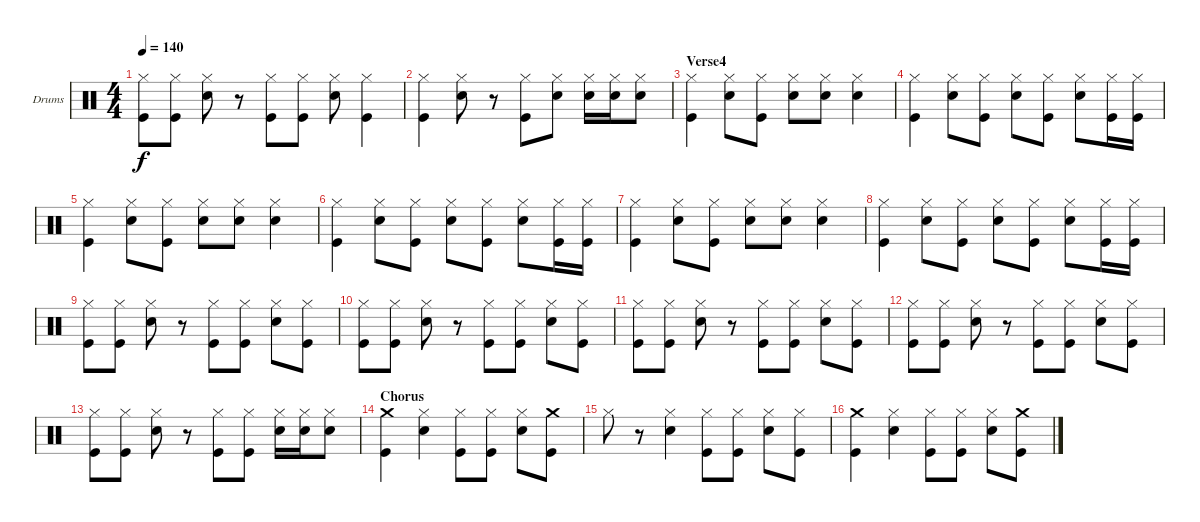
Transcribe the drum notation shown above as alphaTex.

\defaultSystemsLayout 4
\bracketExtendMode groupsimilarinstruments
\firstSystemTrackNameOrientation horizontal
\otherSystemsTrackNameOrientation horizontal
\track ("Jerinx" "Drums") {instrument percussion}
\staff {score}
\articulation defaults
\ts (4 4)
\tempo 140
\clef neutral
\scale
0.333333
\ks c
("Hi-Hat (closed)" "Kick (hit)").8{dy f} ("Hi-Hat (closed)" "Kick (hit)").8 ("Hi-Hat (closed)" "Snare (hit) 2").8 r.8 ("Hi-Hat (closed)" "Kick (hit)").8 ("Hi-Hat (closed)" "Kick (hit)").8 ("Hi-Hat (closed)" "Snare (hit) 2").8 ("Hi-Hat (closed)" "Kick (hit)").4 |
\scale
0.333333 ("Hi-Hat (closed)" "Kick (hit)").4 ("Hi-Hat (closed)" "Snare (hit) 2").8 r.8 ("Hi-Hat (closed)" "Kick (hit)").8 ("Hi-Hat (closed)" "Snare (hit) 2").8 ("Hi-Hat (closed)" "Snare (hit) 2").16 ("Hi-Hat (closed)" "Snare (hit) 2").16 ("Hi-Hat (closed)" "Snare (hit) 2").8 |
\section ("" "Verse4")
\scale
0.333333 ("Hi-Hat (closed)" "Kick (hit)").4 ("Hi-Hat (closed)" "Snare (hit) 2").8 ("Hi-Hat (closed)" "Kick (hit)").8 ("Hi-Hat (closed)" "Snare (hit) 2").8 ("Hi-Hat (closed)" "Snare (hit) 2").8 ("Hi-Hat (closed)" "Snare (hit) 2").4 |
\scale
0.333333 ("Hi-Hat (closed)" "Kick (hit)").4 ("Hi-Hat (closed)" "Snare (hit) 2").8 ("Hi-Hat (closed)" "Kick (hit)").8 ("Hi-Hat (closed)" "Snare (hit) 2").8 ("Hi-Hat (closed)" "Kick (hit)").8 ("Hi-Hat (closed)" "Snare (hit) 2").8 ("Hi-Hat (closed)" "Kick (hit)").16 ("Hi-Hat (closed)" "Kick (hit)").16 |
\scale
0.333333 ("Hi-Hat (closed)" "Kick (hit)").4 ("Hi-Hat (closed)" "Snare (hit) 2").8 ("Hi-Hat (closed)" "Kick (hit)").8 ("Hi-Hat (closed)" "Snare (hit) 2").8 ("Hi-Hat (closed)" "Snare (hit) 2").8 ("Hi-Hat (closed)" "Snare (hit) 2").4 |
\scale
0.333333 ("Hi-Hat (closed)" "Kick (hit)").4 ("Hi-Hat (closed)" "Snare (hit) 2").8 ("Hi-Hat (closed)" "Kick (hit)").8 ("Hi-Hat (closed)" "Snare (hit) 2").8 ("Hi-Hat (closed)" "Kick (hit)").8 ("Hi-Hat (closed)" "Snare (hit) 2").8 ("Hi-Hat (closed)" "Kick (hit)").16 ("Hi-Hat (closed)" "Kick (hit)").16 |
\scale
0.333333 ("Hi-Hat (closed)" "Kick (hit)").4 ("Hi-Hat (closed)" "Snare (hit) 2").8 ("Hi-Hat (closed)" "Kick (hit)").8 ("Hi-Hat (closed)" "Snare (hit) 2").8 ("Hi-Hat (closed)" "Snare (hit) 2").8 ("Hi-Hat (closed)" "Snare (hit) 2").4 |
\scale
0.333333 ("Hi-Hat (closed)" "Kick (hit)").4 ("Hi-Hat (closed)" "Snare (hit) 2").8 ("Hi-Hat (closed)" "Kick (hit)").8 ("Hi-Hat (closed)" "Snare (hit) 2").8 ("Hi-Hat (closed)" "Kick (hit)").8 ("Hi-Hat (closed)" "Snare (hit) 2").8 ("Hi-Hat (closed)" "Kick (hit)").16 ("Hi-Hat (closed)" "Kick (hit)").16 |
\scale
0.333333 ("Hi-Hat (closed)" "Kick (hit)").8 ("Hi-Hat (closed)" "Kick (hit)").8 ("Hi-Hat (closed)" "Snare (hit) 2").8 r.8 ("Hi-Hat (closed)" "Kick (hit)").8 ("Hi-Hat (closed)" "Kick (hit)").8 ("Hi-Hat (closed)" "Snare (hit) 2").8 ("Hi-Hat (closed)" "Kick (hit)").8 |
\scale
0.333333 ("Hi-Hat (closed)" "Kick (hit)").8 ("Hi-Hat (closed)" "Kick (hit)").8 ("Hi-Hat (closed)" "Snare (hit) 2").8 r.8 ("Hi-Hat (closed)" "Kick (hit)").8 ("Hi-Hat (closed)" "Kick (hit)").8 ("Hi-Hat (closed)" "Snare (hit) 2").8 ("Hi-Hat (closed)" "Kick (hit)").8 |
\scale
0.333333 ("Hi-Hat (closed)" "Kick (hit)").8 ("Hi-Hat (closed)" "Kick (hit)").8 ("Hi-Hat (closed)" "Snare (hit) 2").8 r.8 ("Hi-Hat (closed)" "Kick (hit)").8 ("Hi-Hat (closed)" "Kick (hit)").8 ("Hi-Hat (closed)" "Snare (hit) 2").8 ("Hi-Hat (closed)" "Kick (hit)").8 |
\scale
0.333333 ("Hi-Hat (closed)" "Kick (hit)").8 ("Hi-Hat (closed)" "Kick (hit)").8 ("Hi-Hat (closed)" "Snare (hit) 2").8 r.8 ("Hi-Hat (closed)" "Kick (hit)").8 ("Hi-Hat (closed)" "Kick (hit)").8 ("Hi-Hat (closed)" "Snare (hit) 2").8 ("Hi-Hat (closed)" "Kick (hit)").8 |
\scale
0.333333 ("Hi-Hat (closed)" "Kick (hit)").8 ("Hi-Hat (closed)" "Kick (hit)").8 ("Hi-Hat (closed)" "Snare (hit) 2").8 r.8 ("Hi-Hat (closed)" "Kick (hit)").8 ("Hi-Hat (closed)" "Kick (hit)").8 ("Hi-Hat (closed)" "Snare (hit) 2").16 ("Hi-Hat (closed)" "Snare (hit) 2").16 ("Hi-Hat (closed)" "Snare (hit) 2").8 |
\section ("" "Chorus")
\scale
0.333333 ("Crash medium (hit)" "Kick (hit)").4 ("Hi-Hat (closed)" "Snare (hit) 2").4 ("Hi-Hat (closed)" "Kick (hit)").8 ("Hi-Hat (closed)" "Kick (hit)").8 ("Hi-Hat (closed)" "Snare (hit) 2").8 ("Crash medium (hit)" "Kick (hit)").8 |
\scale
0.333333 "Hi-Hat (closed)".8 r.8 ("Hi-Hat (closed)" "Snare (hit) 2").4 ("Hi-Hat (closed)" "Kick (hit)").8 ("Hi-Hat (closed)" "Kick (hit)").8 ("Hi-Hat (closed)" "Snare (hit) 2").8 ("Hi-Hat (closed)" "Kick (hit)").8 |
\scale
0.333333 ("Crash medium (hit)" "Kick (hit)").4 ("Hi-Hat (closed)" "Snare (hit) 2").4 ("Hi-Hat (closed)" "Kick (hit)").8 ("Hi-Hat (closed)" "Kick (hit)").8 ("Hi-Hat (closed)" "Snare (hit) 2").8 ("Crash medium (hit)" "Kick (hit)").8
